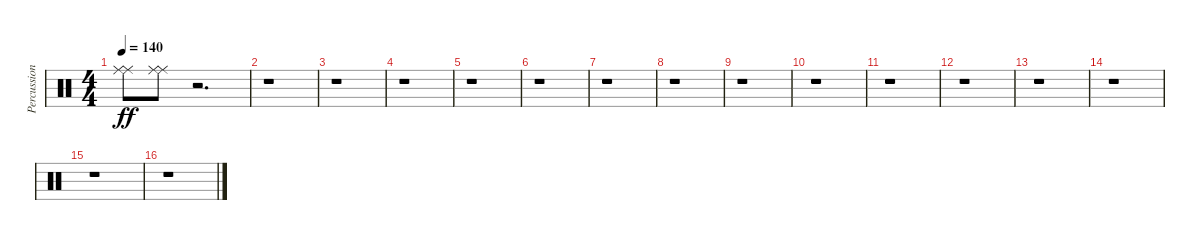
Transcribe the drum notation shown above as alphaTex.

\track ("Percussions" "Percussion") {instrument percussion}
\staff {score}
\articulation defaults
\ts (4 4)
\tempo 140
\clef neutral
\ks c
("Ride (middle)" "Ride (middle)").8{dy ff} ("Ride (middle)" "Ride (middle)").8 r.2{d} |
r.1 |
r.1 |
r.1 |
r.1 |
r.1 |
r.1 |
r.1 |
r.1 |
r.1 |
r.1 |
r.1 |
r.1 |
r.1 |
r.1 |
r.1
